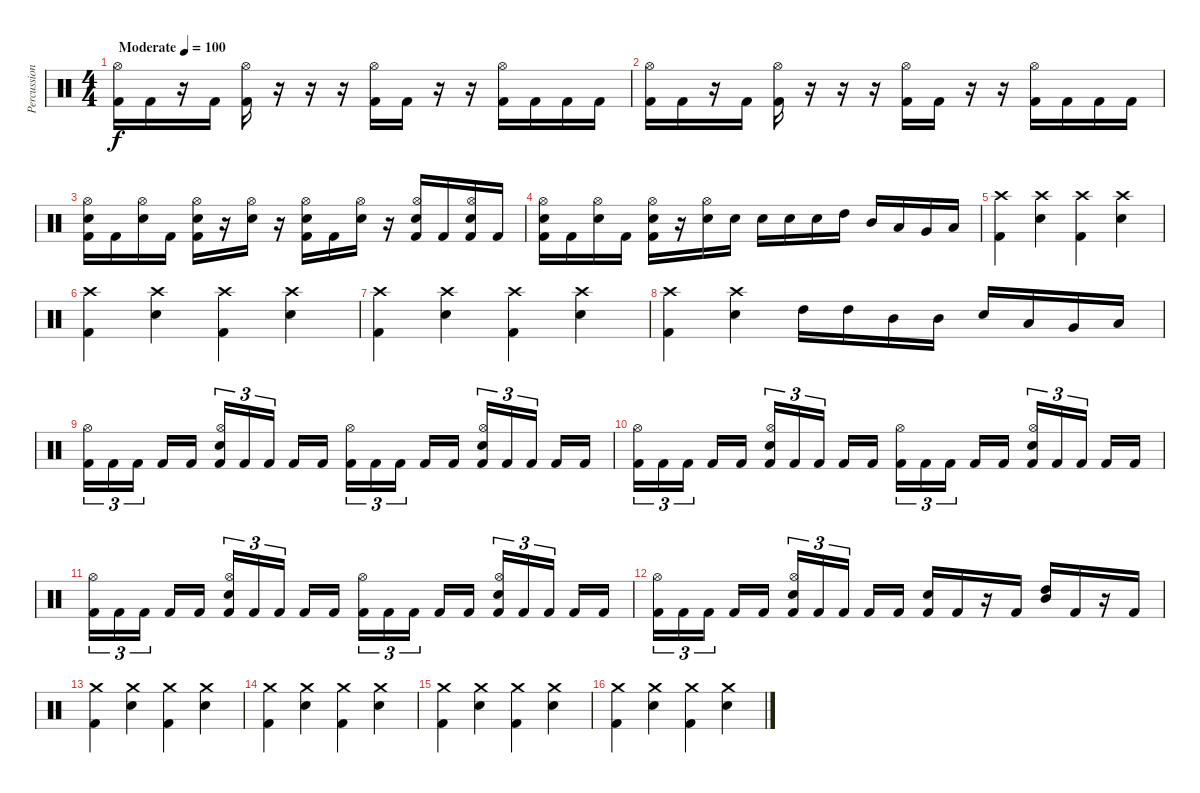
\track ("Percussion" "Percussion") {instrument percussion}
\staff {score}
\articulation defaults
\ts (4 4)
\tempo (100 "Moderate")
\clef neutral
\ks c
("Kick (hit) 2" "Hi-Hat (open)").16{dy f} "Kick (hit) 2".16 r.16 "Kick (hit) 2".16 ("Kick (hit) 2" "Hi-Hat (open)").16 r.16 r.16 r.16 ("Kick (hit) 2" "Hi-Hat (open)").16 "Kick (hit) 2".16 r.16 r.16 ("Kick (hit) 2" "Hi-Hat (open)").16 "Kick (hit) 2".16 "Kick (hit) 2".16 "Kick (hit) 2".16 |
("Kick (hit) 2" "Hi-Hat (open)").16 "Kick (hit) 2".16 r.16 "Kick (hit) 2".16 ("Kick (hit) 2" "Hi-Hat (open)").16 r.16 r.16 r.16 ("Kick (hit) 2" "Hi-Hat (open)").16 "Kick (hit) 2".16 r.16 r.16 ("Kick (hit) 2" "Hi-Hat (open)").16 "Kick (hit) 2".16 "Kick (hit) 2".16 "Kick (hit) 2".16 |
("Kick (hit) 2" "Electric Snare (hit)" "Hi-Hat (open)").16 "Kick (hit) 2".16 ("Electric Snare (hit)" "Hi-Hat (open)").16 "Kick (hit) 2".16 ("Kick (hit) 2" "Electric Snare (hit)" "Hi-Hat (open)").16 r.16 ("Electric Snare (hit)" "Hi-Hat (open)").16 r.16 ("Kick (hit) 2" "Electric Snare (hit)" "Hi-Hat (open)").16 "Kick (hit) 2".16 ("Electric Snare (hit)" "Hi-Hat (open)").16 r.16 ("Kick (hit) 2" "Electric Snare (hit)" "Hi-Hat (open)").16 "Kick (hit) 2".16 ("Kick (hit) 2" "Electric Snare (hit)" "Hi-Hat (open)").16 "Kick (hit) 2".16 |
("Kick (hit) 2" "Electric Snare (hit)" "Hi-Hat (open)").16 "Kick (hit) 2".16 ("Electric Snare (hit)" "Hi-Hat (open)").16 "Kick (hit) 2".16 ("Kick (hit) 2" "Electric Snare (hit)" "Hi-Hat (open)").16 r.16 ("Electric Snare (hit)" "Hi-Hat (open)").16 "Electric Snare (hit)".16 "Electric Snare (hit)".16 "Electric Snare (hit)".16 "Electric Snare (hit)".16 "High Tom (hit)".16 "Mid Tom (hit)".16 "Low Tom (hit)".16 "Very Low Tom (hit)".16 "Low Floor Tom (hit)".16 |
("Crash high (hit)" "Kick (hit) 2").4 ("Crash high (hit)" "Electric Snare (hit)").4 ("Crash high (hit)" "Kick (hit) 2").4 ("Crash high (hit)" "Electric Snare (hit)").4 |
("Crash high (hit)" "Kick (hit) 2").4 ("Crash high (hit)" "Electric Snare (hit)").4 ("Crash high (hit)" "Kick (hit) 2").4 ("Crash high (hit)" "Electric Snare (hit)").4 |
("Crash high (hit)" "Kick (hit) 2").4 ("Crash high (hit)" "Electric Snare (hit)").4 ("Crash high (hit)" "Kick (hit) 2").4 ("Crash high (hit)" "Electric Snare (hit)").4 |
("Crash high (hit)" "Kick (hit) 2").4 ("Crash high (hit)" "Electric Snare (hit)").4 "High Tom (hit)".16 "High Tom (hit)".16 "Mid Tom (hit)".16 "Mid Tom (hit)".16 "Electric Snare (hit)".16 "Low Tom (hit)".16 "Very Low Tom (hit)".16 "Low Floor Tom (hit)".16 |
("Kick (hit) 2" "Hi-Hat (open)").16{tu (3 2)} "Kick (hit) 2".16{tu (3 2)} "Kick (hit) 2".16{tu (3 2) beam splitsecondary} "Kick (hit) 2".16 "Kick (hit) 2".16 ("Kick (hit) 2" "Hi-Hat (open)" "Electric Snare (hit)").16{tu (3 2)} "Kick (hit) 2".16{tu (3 2)} "Kick (hit) 2".16{tu (3 2) beam splitsecondary} "Kick (hit) 2".16 "Kick (hit) 2".16 ("Kick (hit) 2" "Hi-Hat (open)").16{tu (3 2)} "Kick (hit) 2".16{tu (3 2)} "Kick (hit) 2".16{tu (3 2) beam splitsecondary} "Kick (hit) 2".16 "Kick (hit) 2".16 ("Kick (hit) 2" "Hi-Hat (open)" "Electric Snare (hit)").16{tu (3 2)} "Kick (hit) 2".16{tu (3 2)} "Kick (hit) 2".16{tu (3 2) beam splitsecondary} "Kick (hit) 2".16 "Kick (hit) 2".16 |
("Kick (hit) 2" "Hi-Hat (open)").16{tu (3 2)} "Kick (hit) 2".16{tu (3 2)} "Kick (hit) 2".16{tu (3 2) beam splitsecondary} "Kick (hit) 2".16 "Kick (hit) 2".16 ("Kick (hit) 2" "Hi-Hat (open)" "Electric Snare (hit)").16{tu (3 2)} "Kick (hit) 2".16{tu (3 2)} "Kick (hit) 2".16{tu (3 2) beam splitsecondary} "Kick (hit) 2".16 "Kick (hit) 2".16 ("Kick (hit) 2" "Hi-Hat (open)").16{tu (3 2)} "Kick (hit) 2".16{tu (3 2)} "Kick (hit) 2".16{tu (3 2) beam splitsecondary} "Kick (hit) 2".16 "Kick (hit) 2".16 ("Kick (hit) 2" "Hi-Hat (open)" "Electric Snare (hit)").16{tu (3 2)} "Kick (hit) 2".16{tu (3 2)} "Kick (hit) 2".16{tu (3 2) beam splitsecondary} "Kick (hit) 2".16 "Kick (hit) 2".16 |
("Kick (hit) 2" "Hi-Hat (open)").16{tu (3 2)} "Kick (hit) 2".16{tu (3 2)} "Kick (hit) 2".16{tu (3 2) beam splitsecondary} "Kick (hit) 2".16 "Kick (hit) 2".16 ("Kick (hit) 2" "Hi-Hat (open)" "Electric Snare (hit)").16{tu (3 2)} "Kick (hit) 2".16{tu (3 2)} "Kick (hit) 2".16{tu (3 2) beam splitsecondary} "Kick (hit) 2".16 "Kick (hit) 2".16 ("Kick (hit) 2" "Hi-Hat (open)").16{tu (3 2)} "Kick (hit) 2".16{tu (3 2)} "Kick (hit) 2".16{tu (3 2) beam splitsecondary} "Kick (hit) 2".16 "Kick (hit) 2".16 ("Kick (hit) 2" "Hi-Hat (open)" "Electric Snare (hit)").16{tu (3 2)} "Kick (hit) 2".16{tu (3 2)} "Kick (hit) 2".16{tu (3 2) beam splitsecondary} "Kick (hit) 2".16 "Kick (hit) 2".16 |
("Kick (hit) 2" "Hi-Hat (open)").16{tu (3 2)} "Kick (hit) 2".16{tu (3 2)} "Kick (hit) 2".16{tu (3 2) beam splitsecondary} "Kick (hit) 2".16 "Kick (hit) 2".16 ("Kick (hit) 2" "Hi-Hat (open)" "Electric Snare (hit)").16{tu (3 2)} "Kick (hit) 2".16{tu (3 2)} "Kick (hit) 2".16{tu (3 2) beam splitsecondary} "Kick (hit) 2".16 "Kick (hit) 2".16 ("Electric Snare (hit)" "Kick (hit) 2").16 "Kick (hit) 2".16 r.16 "Kick (hit) 2".16 ("High Tom (hit)" "Mid Tom (hit)").16 "Kick (hit) 2".16 r.16 "Kick (hit) 2".16 |
("Crash medium (hit)" "Kick (hit) 2").4 ("Crash medium (hit)" "Electric Snare (hit)").4 ("Crash medium (hit)" "Kick (hit) 2").4 ("Crash medium (hit)" "Electric Snare (hit)").4 |
("Crash medium (hit)" "Kick (hit) 2").4 ("Crash medium (hit)" "Electric Snare (hit)").4 ("Crash medium (hit)" "Kick (hit) 2").4 ("Crash medium (hit)" "Electric Snare (hit)").4 |
("Crash medium (hit)" "Kick (hit) 2").4 ("Crash medium (hit)" "Electric Snare (hit)").4 ("Crash medium (hit)" "Kick (hit) 2").4 ("Crash medium (hit)" "Electric Snare (hit)").4 |
("Crash medium (hit)" "Kick (hit) 2").4 ("Crash medium (hit)" "Electric Snare (hit)").4 ("Crash medium (hit)" "Kick (hit) 2").4 ("Crash medium (hit)" "Electric Snare (hit)").4
